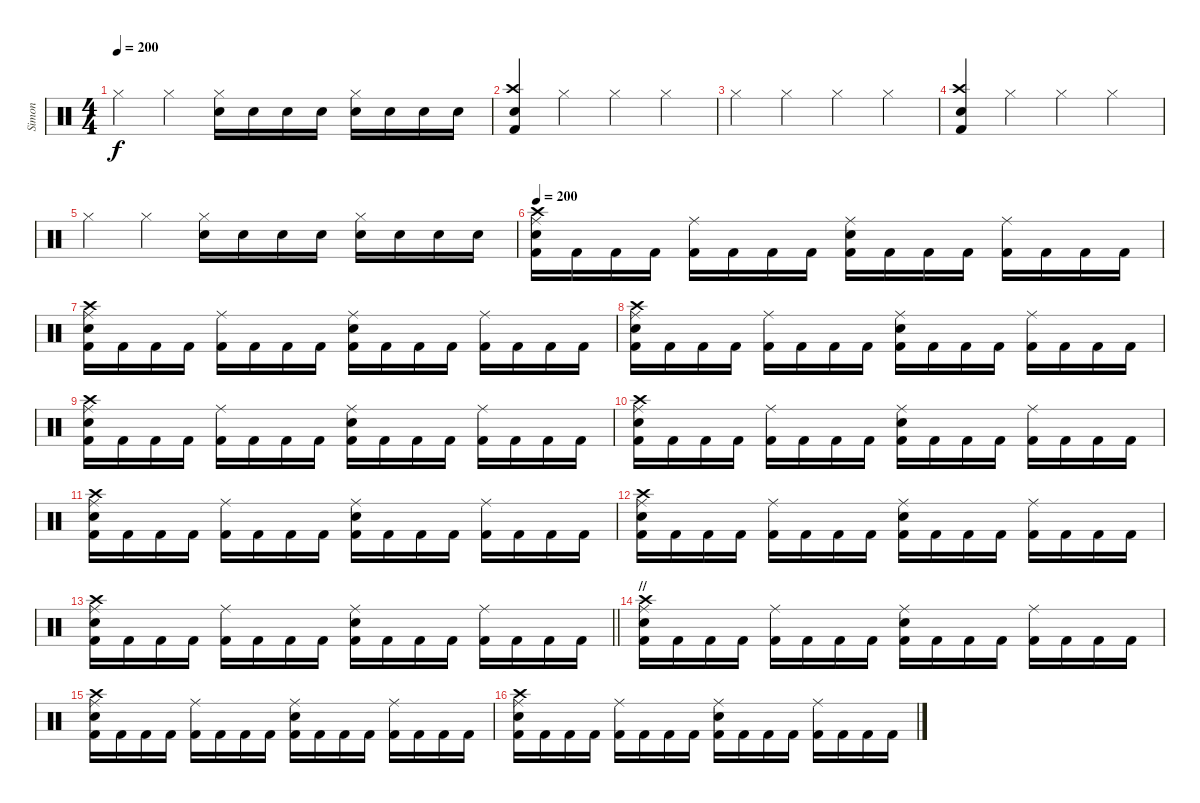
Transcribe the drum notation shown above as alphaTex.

\track ("Simon" "Simon") {instrument percussion}
\staff {score}
\articulation defaults
\ts (4 4)
\tempo 200
\clef neutral
\ks c "Hi-Hat (closed)".4{dy f} "Hi-Hat (closed)".4
("Electric Snare (hit)" "Hi-Hat (closed)").16 "Electric Snare (hit)".16 "Electric Snare (hit)".16 "Electric Snare (hit)".16 ("Electric Snare (hit)" "Hi-Hat (closed)").16 "Electric Snare (hit)".16 "Electric Snare (hit)".16 "Electric Snare (hit)".16 |
("Crash high (hit)" "Electric Snare (hit)" "Kick (hit) 2").4 "Hi-Hat (closed)".4 "Hi-Hat (closed)".4 "Hi-Hat (closed)".4 |
"Hi-Hat (closed)".4 "Hi-Hat (closed)".4 "Hi-Hat (closed)".4 "Hi-Hat (closed)".4 |
("Crash high (hit)" "Electric Snare (hit)" "Kick (hit) 2").4 "Hi-Hat (closed)".4 "Hi-Hat (closed)".4 "Hi-Hat (closed)".4 |
"Hi-Hat (closed)".4 "Hi-Hat (closed)".4 ("Electric Snare (hit)" "Hi-Hat (closed)").16 "Electric Snare (hit)".16 "Electric Snare (hit)".16 "Electric Snare (hit)".16 ("Electric Snare (hit)" "Hi-Hat (closed)").16 "Electric Snare (hit)".16 "Electric Snare (hit)".16 "Electric Snare (hit)".16 |
\tempo 200
("Electric Snare (hit)" "Crash high (hit)" "Ride (middle)" "Kick (hit) 2").16 "Kick (hit) 2".16 "Kick (hit) 2".16 "Kick (hit) 2".16 ("Ride (middle)" "Kick (hit) 2").16 "Kick (hit) 2".16 "Kick (hit) 2".16 "Kick (hit) 2".16 ("Electric Snare (hit)" "Ride (middle)" "Kick (hit) 2").16 "Kick (hit) 2".16 "Kick (hit) 2".16 "Kick (hit) 2".16 ("Ride (middle)" "Kick (hit) 2").16 "Kick (hit) 2".16 "Kick (hit) 2".16 "Kick (hit) 2".16 |
("Electric Snare (hit)" "Crash high (hit)" "Ride (middle)" "Kick (hit) 2").16 "Kick (hit) 2".16 "Kick (hit) 2".16 "Kick (hit) 2".16 ("Ride (middle)" "Kick (hit) 2").16 "Kick (hit) 2".16 "Kick (hit) 2".16 "Kick (hit) 2".16 ("Electric Snare (hit)" "Ride (middle)" "Kick (hit) 2").16 "Kick (hit) 2".16 "Kick (hit) 2".16 "Kick (hit) 2".16 ("Ride (middle)" "Kick (hit) 2").16 "Kick (hit) 2".16 "Kick (hit) 2".16 "Kick (hit) 2".16 |
("Electric Snare (hit)" "Crash high (hit)" "Ride (middle)" "Kick (hit) 2").16 "Kick (hit) 2".16 "Kick (hit) 2".16 "Kick (hit) 2".16 ("Ride (middle)" "Kick (hit) 2").16 "Kick (hit) 2".16 "Kick (hit) 2".16 "Kick (hit) 2".16 ("Electric Snare (hit)" "Ride (middle)" "Kick (hit) 2").16 "Kick (hit) 2".16 "Kick (hit) 2".16 "Kick (hit) 2".16 ("Ride (middle)" "Kick (hit) 2").16 "Kick (hit) 2".16 "Kick (hit) 2".16 "Kick (hit) 2".16 |
("Electric Snare (hit)" "Crash high (hit)" "Ride (middle)" "Kick (hit) 2").16 "Kick (hit) 2".16 "Kick (hit) 2".16 "Kick (hit) 2".16 ("Ride (middle)" "Kick (hit) 2").16 "Kick (hit) 2".16 "Kick (hit) 2".16 "Kick (hit) 2".16 ("Electric Snare (hit)" "Ride (middle)" "Kick (hit) 2").16 "Kick (hit) 2".16 "Kick (hit) 2".16 "Kick (hit) 2".16 ("Ride (middle)" "Kick (hit) 2").16 "Kick (hit) 2".16 "Kick (hit) 2".16 "Kick (hit) 2".16 |
("Electric Snare (hit)" "Crash high (hit)" "Ride (middle)" "Kick (hit) 2").16 "Kick (hit) 2".16 "Kick (hit) 2".16 "Kick (hit) 2".16 ("Ride (middle)" "Kick (hit) 2").16 "Kick (hit) 2".16 "Kick (hit) 2".16 "Kick (hit) 2".16 ("Electric Snare (hit)" "Ride (middle)" "Kick (hit) 2").16 "Kick (hit) 2".16 "Kick (hit) 2".16 "Kick (hit) 2".16 ("Ride (middle)" "Kick (hit) 2").16 "Kick (hit) 2".16 "Kick (hit) 2".16 "Kick (hit) 2".16 |
("Electric Snare (hit)" "Crash high (hit)" "Ride (middle)" "Kick (hit) 2").16 "Kick (hit) 2".16 "Kick (hit) 2".16 "Kick (hit) 2".16 ("Ride (middle)" "Kick (hit) 2").16 "Kick (hit) 2".16 "Kick (hit) 2".16 "Kick (hit) 2".16 ("Electric Snare (hit)" "Ride (middle)" "Kick (hit) 2").16 "Kick (hit) 2".16 "Kick (hit) 2".16 "Kick (hit) 2".16 ("Ride (middle)" "Kick (hit) 2").16 "Kick (hit) 2".16 "Kick (hit) 2".16 "Kick (hit) 2".16 |
("Electric Snare (hit)" "Crash high (hit)" "Ride (middle)" "Kick (hit) 2").16 "Kick (hit) 2".16 "Kick (hit) 2".16 "Kick (hit) 2".16 ("Ride (middle)" "Kick (hit) 2").16 "Kick (hit) 2".16 "Kick (hit) 2".16 "Kick (hit) 2".16 ("Electric Snare (hit)" "Ride (middle)" "Kick (hit) 2").16 "Kick (hit) 2".16 "Kick (hit) 2".16 "Kick (hit) 2".16 ("Ride (middle)" "Kick (hit) 2").16 "Kick (hit) 2".16 "Kick (hit) 2".16 "Kick (hit) 2".16 |
\barLineRight lightlight
("Electric Snare (hit)" "Crash high (hit)" "Ride (middle)" "Kick (hit) 2").16 "Kick (hit) 2".16 "Kick (hit) 2".16 "Kick (hit) 2".16 ("Ride (middle)" "Kick (hit) 2").16 "Kick (hit) 2".16 "Kick (hit) 2".16 "Kick (hit) 2".16 ("Electric Snare (hit)" "Ride (middle)" "Kick (hit) 2").16 "Kick (hit) 2".16 "Kick (hit) 2".16 "Kick (hit) 2".16 ("Ride (middle)" "Kick (hit) 2").16 "Kick (hit) 2".16 "Kick (hit) 2".16 "Kick (hit) 2".16 |
\section ("" "//")
("Electric Snare (hit)" "Crash high (hit)" "Ride (middle)" "Kick (hit) 2").16 "Kick (hit) 2".16 "Kick (hit) 2".16 "Kick (hit) 2".16 ("Ride (middle)" "Kick (hit) 2").16 "Kick (hit) 2".16 "Kick (hit) 2".16 "Kick (hit) 2".16 ("Electric Snare (hit)" "Ride (middle)" "Kick (hit) 2").16 "Kick (hit) 2".16 "Kick (hit) 2".16 "Kick (hit) 2".16 ("Ride (middle)" "Kick (hit) 2").16 "Kick (hit) 2".16 "Kick (hit) 2".16 "Kick (hit) 2".16 |
("Electric Snare (hit)" "Crash high (hit)" "Ride (middle)" "Kick (hit) 2").16 "Kick (hit) 2".16 "Kick (hit) 2".16 "Kick (hit) 2".16 ("Ride (middle)" "Kick (hit) 2").16 "Kick (hit) 2".16 "Kick (hit) 2".16 "Kick (hit) 2".16 ("Electric Snare (hit)" "Ride (middle)" "Kick (hit) 2").16 "Kick (hit) 2".16 "Kick (hit) 2".16 "Kick (hit) 2".16 ("Ride (middle)" "Kick (hit) 2").16 "Kick (hit) 2".16 "Kick (hit) 2".16 "Kick (hit) 2".16 |
("Electric Snare (hit)" "Crash high (hit)" "Ride (middle)" "Kick (hit) 2").16 "Kick (hit) 2".16 "Kick (hit) 2".16 "Kick (hit) 2".16 ("Ride (middle)" "Kick (hit) 2").16 "Kick (hit) 2".16 "Kick (hit) 2".16 "Kick (hit) 2".16 ("Electric Snare (hit)" "Ride (middle)" "Kick (hit) 2").16 "Kick (hit) 2".16 "Kick (hit) 2".16 "Kick (hit) 2".16 ("Ride (middle)" "Kick (hit) 2").16 "Kick (hit) 2".16 "Kick (hit) 2".16 "Kick (hit) 2".16
